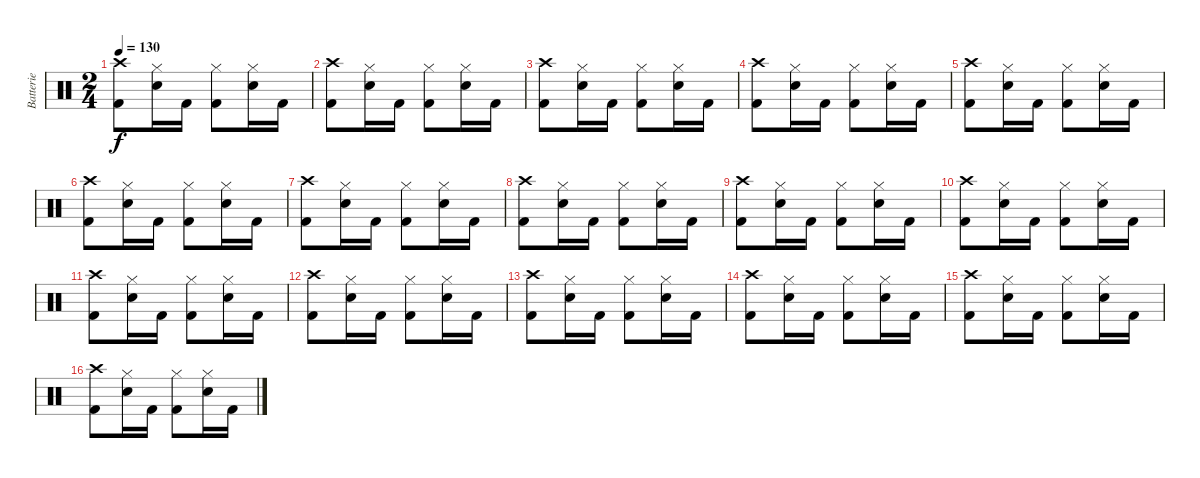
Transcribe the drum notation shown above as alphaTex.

\track ("Batterie" "Batterie") {instrument percussion}
\staff {score}
\articulation defaults
\ts (2 4)
\tempo 130
\clef neutral
\ks c
("Crash high (hit)" "Kick (hit) 2").8{dy f} ("Hi-Hat (closed)" "Snare (hit) 2").16 "Kick (hit) 2".16 ("Hi-Hat (closed)" "Kick (hit) 2").8 ("Hi-Hat (closed)" "Snare (hit) 2").16 "Kick (hit) 2".16 |
("Crash high (hit)" "Kick (hit) 2").8 ("Hi-Hat (closed)" "Snare (hit) 2").16 "Kick (hit) 2".16 ("Hi-Hat (closed)" "Kick (hit) 2").8 ("Hi-Hat (closed)" "Snare (hit) 2").16 "Kick (hit) 2".16 |
("Crash high (hit)" "Kick (hit) 2").8 ("Hi-Hat (closed)" "Snare (hit) 2").16 "Kick (hit) 2".16 ("Hi-Hat (closed)" "Kick (hit) 2").8 ("Hi-Hat (closed)" "Snare (hit) 2").16 "Kick (hit) 2".16 |
("Crash high (hit)" "Kick (hit) 2").8 ("Hi-Hat (closed)" "Snare (hit) 2").16 "Kick (hit) 2".16 ("Hi-Hat (closed)" "Kick (hit) 2").8 ("Hi-Hat (closed)" "Snare (hit) 2").16 "Kick (hit) 2".16 |
("Crash high (hit)" "Kick (hit) 2").8 ("Hi-Hat (closed)" "Snare (hit) 2").16 "Kick (hit) 2".16 ("Hi-Hat (closed)" "Kick (hit) 2").8 ("Hi-Hat (closed)" "Snare (hit) 2").16 "Kick (hit) 2".16 |
("Crash high (hit)" "Kick (hit) 2").8 ("Hi-Hat (closed)" "Snare (hit) 2").16 "Kick (hit) 2".16 ("Hi-Hat (closed)" "Kick (hit) 2").8 ("Hi-Hat (closed)" "Snare (hit) 2").16 "Kick (hit) 2".16 |
("Crash high (hit)" "Kick (hit) 2").8 ("Hi-Hat (closed)" "Snare (hit) 2").16 "Kick (hit) 2".16 ("Hi-Hat (closed)" "Kick (hit) 2").8 ("Hi-Hat (closed)" "Snare (hit) 2").16 "Kick (hit) 2".16 |
("Crash high (hit)" "Kick (hit) 2").8 ("Hi-Hat (closed)" "Snare (hit) 2").16 "Kick (hit) 2".16 ("Hi-Hat (closed)" "Kick (hit) 2").8 ("Hi-Hat (closed)" "Snare (hit) 2").16 "Kick (hit) 2".16 |
("Crash high (hit)" "Kick (hit) 2").8 ("Hi-Hat (closed)" "Snare (hit) 2").16 "Kick (hit) 2".16 ("Hi-Hat (closed)" "Kick (hit) 2").8 ("Hi-Hat (closed)" "Snare (hit) 2").16 "Kick (hit) 2".16 |
("Crash high (hit)" "Kick (hit) 2").8 ("Hi-Hat (closed)" "Snare (hit) 2").16 "Kick (hit) 2".16 ("Hi-Hat (closed)" "Kick (hit) 2").8 ("Hi-Hat (closed)" "Snare (hit) 2").16 "Kick (hit) 2".16 |
("Crash high (hit)" "Kick (hit) 2").8 ("Hi-Hat (closed)" "Snare (hit) 2").16 "Kick (hit) 2".16 ("Hi-Hat (closed)" "Kick (hit) 2").8 ("Hi-Hat (closed)" "Snare (hit) 2").16 "Kick (hit) 2".16 |
("Crash high (hit)" "Kick (hit) 2").8 ("Hi-Hat (closed)" "Snare (hit) 2").16 "Kick (hit) 2".16 ("Hi-Hat (closed)" "Kick (hit) 2").8 ("Hi-Hat (closed)" "Snare (hit) 2").16 "Kick (hit) 2".16 |
("Crash high (hit)" "Kick (hit) 2").8 ("Hi-Hat (closed)" "Snare (hit) 2").16 "Kick (hit) 2".16 ("Hi-Hat (closed)" "Kick (hit) 2").8 ("Hi-Hat (closed)" "Snare (hit) 2").16 "Kick (hit) 2".16 |
("Crash high (hit)" "Kick (hit) 2").8 ("Hi-Hat (closed)" "Snare (hit) 2").16 "Kick (hit) 2".16 ("Hi-Hat (closed)" "Kick (hit) 2").8 ("Hi-Hat (closed)" "Snare (hit) 2").16 "Kick (hit) 2".16 |
("Crash high (hit)" "Kick (hit) 2").8 ("Hi-Hat (closed)" "Snare (hit) 2").16 "Kick (hit) 2".16 ("Hi-Hat (closed)" "Kick (hit) 2").8 ("Hi-Hat (closed)" "Snare (hit) 2").16 "Kick (hit) 2".16 |
("Crash high (hit)" "Kick (hit) 2").8 ("Hi-Hat (closed)" "Snare (hit) 2").16 "Kick (hit) 2".16 ("Hi-Hat (closed)" "Kick (hit) 2").8 ("Hi-Hat (closed)" "Snare (hit) 2").16 "Kick (hit) 2".16
